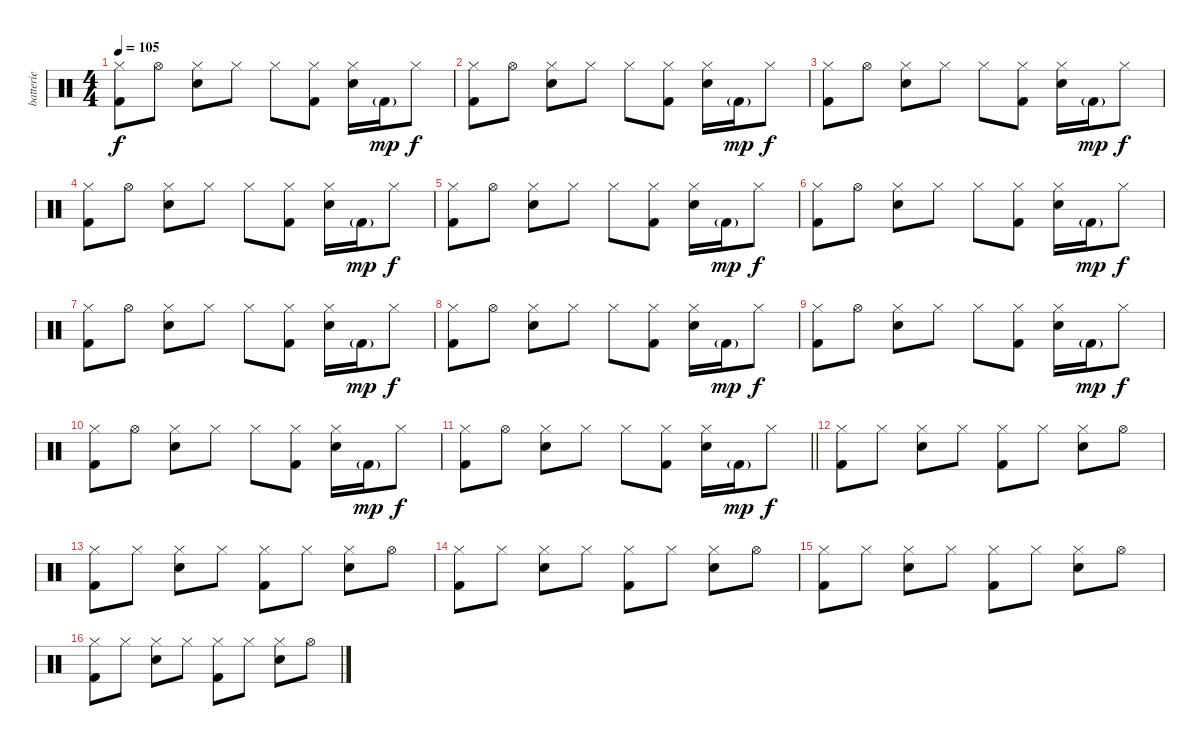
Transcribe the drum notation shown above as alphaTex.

\track ("batterie" "batterie") {instrument percussion}
\staff {score}
\articulation defaults
\ts (4 4)
\tempo 105
\clef neutral
\ks c
("Hi-Hat (closed)" "Kick (hit) 2").8{dy f} "Hi-Hat (open)".8 ("Hi-Hat (closed)" "Snare (hit) 2").8 "Hi-Hat (closed)".8 "Hi-Hat (closed)".8 ("Hi-Hat (closed)" "Kick (hit) 2").8 ("Hi-Hat (closed)" "Snare (hit) 2").16 "Kick (hit) 2"{g}.16{dy mp} "Hi-Hat (closed)".8{dy f} |
("Hi-Hat (closed)" "Kick (hit) 2").8 "Hi-Hat (open)".8 ("Hi-Hat (closed)" "Snare (hit) 2").8 "Hi-Hat (closed)".8 "Hi-Hat (closed)".8 ("Hi-Hat (closed)" "Kick (hit) 2").8 ("Hi-Hat (closed)" "Snare (hit) 2").16 "Kick (hit) 2"{g}.16{dy mp} "Hi-Hat (closed)".8{dy f} |
("Hi-Hat (closed)" "Kick (hit) 2").8 "Hi-Hat (open)".8 ("Hi-Hat (closed)" "Snare (hit) 2").8 "Hi-Hat (closed)".8 "Hi-Hat (closed)".8 ("Hi-Hat (closed)" "Kick (hit) 2").8 ("Hi-Hat (closed)" "Snare (hit) 2").16 "Kick (hit) 2"{g}.16{dy mp} "Hi-Hat (closed)".8{dy f} |
("Hi-Hat (closed)" "Kick (hit) 2").8 "Hi-Hat (open)".8 ("Hi-Hat (closed)" "Snare (hit) 2").8 "Hi-Hat (closed)".8 "Hi-Hat (closed)".8 ("Hi-Hat (closed)" "Kick (hit) 2").8 ("Hi-Hat (closed)" "Snare (hit) 2").16 "Kick (hit) 2"{g}.16{dy mp} "Hi-Hat (closed)".8{dy f} |
("Hi-Hat (closed)" "Kick (hit) 2").8 "Hi-Hat (open)".8 ("Hi-Hat (closed)" "Snare (hit) 2").8 "Hi-Hat (closed)".8 "Hi-Hat (closed)".8 ("Hi-Hat (closed)" "Kick (hit) 2").8 ("Hi-Hat (closed)" "Snare (hit) 2").16 "Kick (hit) 2"{g}.16{dy mp} "Hi-Hat (closed)".8{dy f} |
("Hi-Hat (closed)" "Kick (hit) 2").8 "Hi-Hat (open)".8 ("Hi-Hat (closed)" "Snare (hit) 2").8 "Hi-Hat (closed)".8 "Hi-Hat (closed)".8 ("Hi-Hat (closed)" "Kick (hit) 2").8 ("Hi-Hat (closed)" "Snare (hit) 2").16 "Kick (hit) 2"{g}.16{dy mp} "Hi-Hat (closed)".8{dy f} |
("Hi-Hat (closed)" "Kick (hit) 2").8 "Hi-Hat (open)".8 ("Hi-Hat (closed)" "Snare (hit) 2").8 "Hi-Hat (closed)".8 "Hi-Hat (closed)".8 ("Hi-Hat (closed)" "Kick (hit) 2").8 ("Hi-Hat (closed)" "Snare (hit) 2").16 "Kick (hit) 2"{g}.16{dy mp} "Hi-Hat (closed)".8{dy f} |
("Hi-Hat (closed)" "Kick (hit) 2").8 "Hi-Hat (open)".8 ("Hi-Hat (closed)" "Snare (hit) 2").8 "Hi-Hat (closed)".8 "Hi-Hat (closed)".8 ("Hi-Hat (closed)" "Kick (hit) 2").8 ("Hi-Hat (closed)" "Snare (hit) 2").16 "Kick (hit) 2"{g}.16{dy mp} "Hi-Hat (closed)".8{dy f} |
("Hi-Hat (closed)" "Kick (hit) 2").8 "Hi-Hat (open)".8 ("Hi-Hat (closed)" "Snare (hit) 2").8 "Hi-Hat (closed)".8 "Hi-Hat (closed)".8 ("Hi-Hat (closed)" "Kick (hit) 2").8 ("Hi-Hat (closed)" "Snare (hit) 2").16 "Kick (hit) 2"{g}.16{dy mp} "Hi-Hat (closed)".8{dy f} |
("Hi-Hat (closed)" "Kick (hit) 2").8 "Hi-Hat (open)".8 ("Hi-Hat (closed)" "Snare (hit) 2").8 "Hi-Hat (closed)".8 "Hi-Hat (closed)".8 ("Hi-Hat (closed)" "Kick (hit) 2").8 ("Hi-Hat (closed)" "Snare (hit) 2").16 "Kick (hit) 2"{g}.16{dy mp} "Hi-Hat (closed)".8{dy f} |
\barLineRight lightlight
("Hi-Hat (closed)" "Kick (hit) 2").8 "Hi-Hat (open)".8 ("Hi-Hat (closed)" "Snare (hit) 2").8 "Hi-Hat (closed)".8 "Hi-Hat (closed)".8 ("Hi-Hat (closed)" "Kick (hit) 2").8 ("Hi-Hat (closed)" "Snare (hit) 2").16 "Kick (hit) 2"{g}.16{dy mp} "Hi-Hat (closed)".8{dy f} |
("Hi-Hat (closed)" "Kick (hit) 2").8 "Hi-Hat (closed)".8 ("Hi-Hat (closed)" "Snare (hit) 2").8 "Hi-Hat (closed)".8 ("Hi-Hat (closed)" "Kick (hit) 2").8 "Hi-Hat (closed)".8 ("Hi-Hat (closed)" "Snare (hit) 2").8 "Hi-Hat (open)".8 |
("Hi-Hat (closed)" "Kick (hit) 2").8 "Hi-Hat (closed)".8 ("Hi-Hat (closed)" "Snare (hit) 2").8 "Hi-Hat (closed)".8 ("Hi-Hat (closed)" "Kick (hit) 2").8 "Hi-Hat (closed)".8 ("Hi-Hat (closed)" "Snare (hit) 2").8 "Hi-Hat (open)".8 |
("Hi-Hat (closed)" "Kick (hit) 2").8 "Hi-Hat (closed)".8 ("Hi-Hat (closed)" "Snare (hit) 2").8 "Hi-Hat (closed)".8 ("Hi-Hat (closed)" "Kick (hit) 2").8 "Hi-Hat (closed)".8 ("Hi-Hat (closed)" "Snare (hit) 2").8 "Hi-Hat (open)".8 |
("Hi-Hat (closed)" "Kick (hit) 2").8 "Hi-Hat (closed)".8 ("Hi-Hat (closed)" "Snare (hit) 2").8 "Hi-Hat (closed)".8 ("Hi-Hat (closed)" "Kick (hit) 2").8 "Hi-Hat (closed)".8 ("Hi-Hat (closed)" "Snare (hit) 2").8 "Hi-Hat (open)".8 |
("Hi-Hat (closed)" "Kick (hit) 2").8 "Hi-Hat (closed)".8 ("Hi-Hat (closed)" "Snare (hit) 2").8 "Hi-Hat (closed)".8 ("Hi-Hat (closed)" "Kick (hit) 2").8 "Hi-Hat (closed)".8 ("Hi-Hat (closed)" "Snare (hit) 2").8 "Hi-Hat (open)".8
